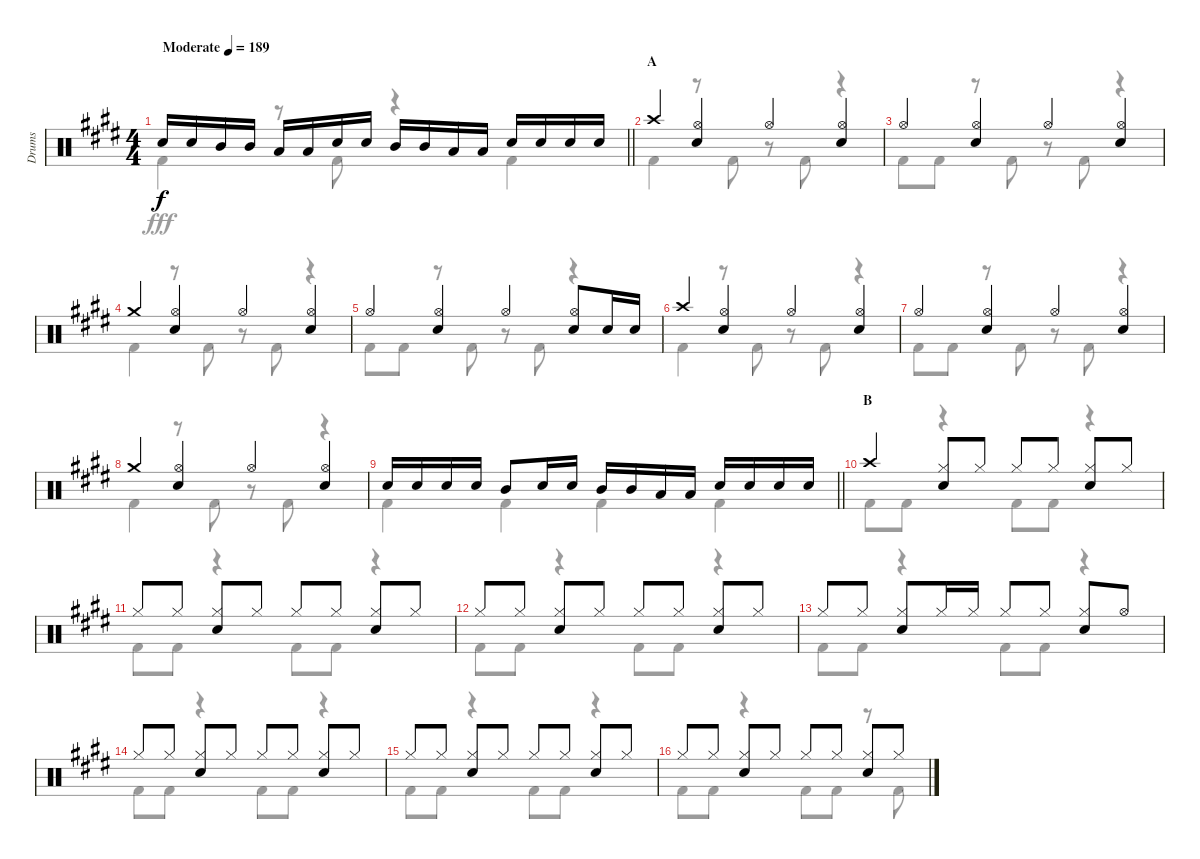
\track ("Drums" "Drums") {instrument percussion}
\staff {score}
\articulation defaults
\voice
\ts (4 4)
\tempo (189 "Moderate")
\clef neutral
\barLineRight lightlight
\ks e "Snare (hit) 2".16{dy f} "Snare (hit) 2".16 "Mid Tom (hit)".16 "Mid Tom (hit)".16 "Low Tom (hit)".16 "Low Tom (hit)".16 "Snare (hit) 2".16 "Snare (hit) 2".16 "Mid Tom (hit)".16 "Mid Tom (hit)".16 "Low Tom (hit)".16 "Low Tom (hit)".16 "Snare (hit) 2".16 "Snare (hit) 2".16 "Snare (hit) 2".16 "Snare (hit) 2".16
|
\section ("" "A")
"Crash high (hit)".4 ("Hi-Hat (open)" "Snare (hit) 2").4 "Hi-Hat (open)".4 ("Hi-Hat (open)" "Snare (hit) 2").4 |
"Hi-Hat (open)".4 ("Hi-Hat (open)" "Snare (hit) 2").4 "Hi-Hat (open)".4 ("Hi-Hat (open)" "Snare (hit) 2").4 |
"Crash medium (hit)".4 ("Hi-Hat (open)" "Snare (hit) 2").4 "Hi-Hat (open)".4 ("Hi-Hat (open)" "Snare (hit) 2").4 |
"Hi-Hat (open)".4 ("Hi-Hat (open)" "Snare (hit) 2").4 "Hi-Hat (open)".4 ("Hi-Hat (open)" "Snare (hit) 2").8 "Snare (hit) 2".16 "Snare (hit) 2".16 |
"Crash high (hit)".4 ("Hi-Hat (open)" "Snare (hit) 2").4 "Hi-Hat (open)".4 ("Hi-Hat (open)" "Snare (hit) 2").4 |
"Hi-Hat (open)".4 ("Hi-Hat (open)" "Snare (hit) 2").4 "Hi-Hat (open)".4 ("Hi-Hat (open)" "Snare (hit) 2").4 |
"Crash medium (hit)".4 ("Hi-Hat (open)" "Snare (hit) 2").4 "Hi-Hat (open)".4 ("Hi-Hat (open)" "Snare (hit) 2").4 |
\barLineRight lightlight "Snare (hit) 2".16 "Snare (hit) 2".16 "Snare (hit) 2".16 "Snare (hit) 2".16 "Mid Tom (hit)".8 "Snare (hit) 2".16 "Snare (hit) 2".16 "Mid Tom (hit)".16 "Mid Tom (hit)".16 "Low Tom (hit)".16 "Low Tom (hit)".16 "Snare (hit) 2".16 "Snare (hit) 2".16 "Snare (hit) 2".16 "Snare (hit) 2".16
|
\section ("" "B")
"Crash high (hit)".4 ("Hi-Hat (closed)" "Snare (hit) 2").8 "Hi-Hat (closed)".8 "Hi-Hat (closed)".8 "Hi-Hat (closed)".8 ("Hi-Hat (closed)" "Snare (hit) 2").8 "Hi-Hat (closed)".8 |
"Hi-Hat (closed)".8 "Hi-Hat (closed)".8 ("Hi-Hat (closed)" "Snare (hit) 2").8 "Hi-Hat (closed)".8 "Hi-Hat (closed)".8 "Hi-Hat (closed)".8 ("Hi-Hat (closed)" "Snare (hit) 2").8 "Hi-Hat (closed)".8 |
"Hi-Hat (closed)".8 "Hi-Hat (closed)".8 ("Hi-Hat (closed)" "Snare (hit) 2").8 "Hi-Hat (closed)".8 "Hi-Hat (closed)".8 "Hi-Hat (closed)".8 ("Hi-Hat (closed)" "Snare (hit) 2").8 "Hi-Hat (closed)".8 |
"Hi-Hat (closed)".8 "Hi-Hat (closed)".8 ("Hi-Hat (closed)" "Snare (hit) 2").8 "Hi-Hat (closed)".16 "Hi-Hat (closed)".16 "Hi-Hat (closed)".8 "Hi-Hat (closed)".8 ("Hi-Hat (closed)" "Snare (hit) 2").8 "Hi-Hat (open)".8 |
"Hi-Hat (closed)".8 "Hi-Hat (closed)".8 ("Hi-Hat (closed)" "Snare (hit) 2").8 "Hi-Hat (closed)".8 "Hi-Hat (closed)".8 "Hi-Hat (closed)".8 ("Hi-Hat (closed)" "Snare (hit) 2").8 "Hi-Hat (closed)".8 |
"Hi-Hat (closed)".8 "Hi-Hat (closed)".8 ("Hi-Hat (closed)" "Snare (hit) 2").8 "Hi-Hat (closed)".8 "Hi-Hat (closed)".8 "Hi-Hat (closed)".8 ("Hi-Hat (closed)" "Snare (hit) 2").8 "Hi-Hat (closed)".8 |
"Hi-Hat (closed)".8 "Hi-Hat (closed)".8 ("Hi-Hat (closed)" "Snare (hit) 2").8 "Hi-Hat (closed)".8 "Hi-Hat (closed)".8 "Hi-Hat (closed)".8 ("Hi-Hat (closed)" "Snare (hit) 2").8 "Hi-Hat (closed)".8
\voice
\clef neutral
\ottava regular
\simile none
\barLineRight lightlight
\ks e "Kick (hit) 2".4{dy fff}
r.8 "Kick (hit) 2".8 r.4 "Kick (hit) 2".4 |
"Kick (hit) 2".4 r.8 "Kick (hit) 2".8 r.8 "Kick (hit) 2".8 r.4 |
"Kick (hit) 2".8 "Kick (hit) 2".8 r.8 "Kick (hit) 2".8 r.8 "Kick (hit) 2".8 r.4 |
"Kick (hit) 2".4 r.8 "Kick (hit) 2".8 r.8 "Kick (hit) 2".8 r.4 |
"Kick (hit) 2".8 "Kick (hit) 2".8 r.8 "Kick (hit) 2".8 r.8 "Kick (hit) 2".8 r.4 |
"Kick (hit) 2".4 r.8 "Kick (hit) 2".8 r.8 "Kick (hit) 2".8 r.4 |
"Kick (hit) 2".8 "Kick (hit) 2".8 r.8 "Kick (hit) 2".8 r.8 "Kick (hit) 2".8 r.4 |
"Kick (hit) 2".4 r.8 "Kick (hit) 2".8 r.8 "Kick (hit) 2".8 r.4 |
\barLineRight lightlight "Kick (hit) 2".4 "Kick (hit) 2".4 "Kick (hit) 2".4 "Kick (hit) 2".4
|
"Kick (hit) 2".8 "Kick (hit) 2".8 r.4 "Kick (hit) 2".8 "Kick (hit) 2".8 r.4 |
"Kick (hit) 2".8 "Kick (hit) 2".8 r.4 "Kick (hit) 2".8 "Kick (hit) 2".8 r.4 |
"Kick (hit) 2".8 "Kick (hit) 2".8 r.4 "Kick (hit) 2".8 "Kick (hit) 2".8 r.4 |
"Kick (hit) 2".8 "Kick (hit) 2".8 r.4 "Kick (hit) 2".8 "Kick (hit) 2".8 r.4 |
"Kick (hit) 2".8 "Kick (hit) 2".8 r.4 "Kick (hit) 2".8 "Kick (hit) 2".8 r.4 |
"Kick (hit) 2".8 "Kick (hit) 2".8 r.4 "Kick (hit) 2".8 "Kick (hit) 2".8 r.4 |
"Kick (hit) 2".8 "Kick (hit) 2".8 r.4 "Kick (hit) 2".8 "Kick (hit) 2".8 r.8 "Kick (hit) 2".8
